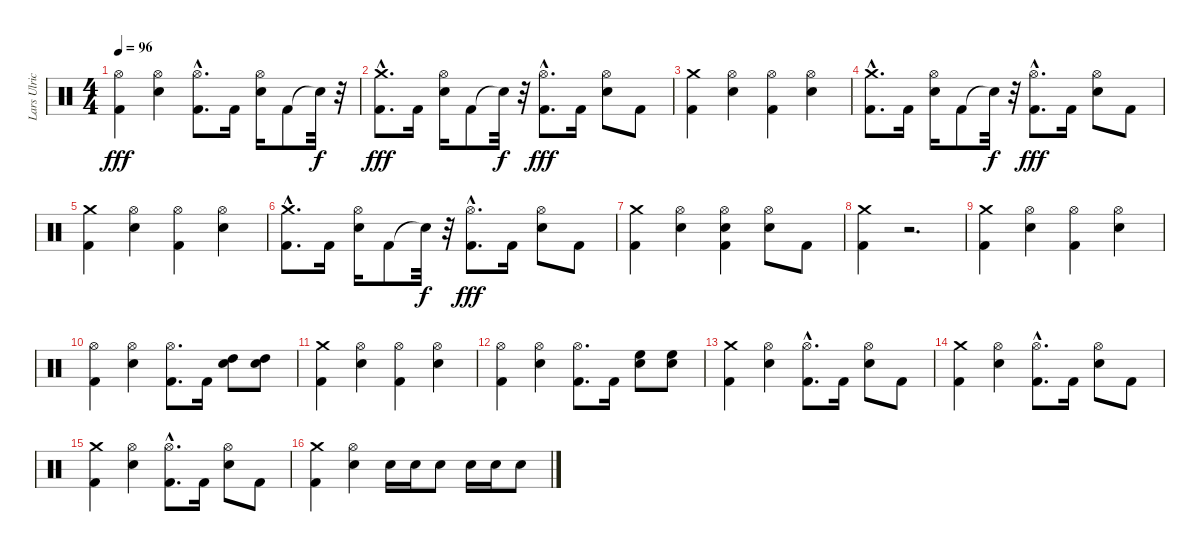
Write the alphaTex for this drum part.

\track ("Lars Ulrich" "Lars Ulric") {instrument percussion}
\staff {score}
\articulation defaults
\ts (4 4)
\tempo 96
\clef neutral
\ks c
("Hi-Hat (open)" "Kick (hit) 2").4{dy fff} ("Hi-Hat (open)" "Snare (hit) 2").4 ("Kick (hit) 2"{hac} "Hi-Hat (open)").8{d} "Kick (hit) 2".16 ("Hi-Hat (open)" "Snare (hit) 2").16 "Kick (hit) 2".8 "Snare (hit)"{t}.32{dy f} r.32 |
("Kick (hit) 2"{hac} "Crash medium (hit)").8{d dy fff} "Kick (hit) 2".16 ("Hi-Hat (open)" "Snare (hit) 2").16 "Kick (hit) 2".8 "Snare (hit)"{t}.32{dy f} r.32 ("Kick (hit) 2"{hac} "Hi-Hat (open)").8{d dy fff} "Kick (hit) 2".16 ("Snare (hit) 2" "Hi-Hat (open)").8 "Kick (hit) 2".8 |
("Kick (hit) 2" "Crash medium (hit)").4 ("Hi-Hat (open)" "Snare (hit) 2").4 ("Hi-Hat (open)" "Kick (hit) 2").4 ("Hi-Hat (open)" "Snare (hit) 2").4 |
("Kick (hit) 2"{hac} "Crash medium (hit)").8{d} "Kick (hit) 2".16 ("Hi-Hat (open)" "Snare (hit) 2").16 "Kick (hit) 2".8 "Snare (hit)"{t}.32{dy f} r.32 ("Kick (hit) 2"{hac} "Hi-Hat (open)").8{d dy fff} "Kick (hit) 2".16 ("Snare (hit) 2" "Hi-Hat (open)").8 "Kick (hit) 2".8 |
("Kick (hit) 2" "Crash medium (hit)").4 ("Hi-Hat (open)" "Snare (hit) 2").4 ("Hi-Hat (open)" "Kick (hit) 2").4 ("Hi-Hat (open)" "Snare (hit) 2").4 |
("Kick (hit) 2"{hac} "Crash medium (hit)").8{d} "Kick (hit) 2".16 ("Hi-Hat (open)" "Snare (hit) 2").16 "Kick (hit) 2".8 "Snare (hit)"{t}.32{dy f} r.32 ("Kick (hit) 2"{hac} "Hi-Hat (open)").8{d dy fff} "Kick (hit) 2".16 ("Snare (hit) 2" "Hi-Hat (open)").8 "Kick (hit) 2".8 |
("Kick (hit) 2" "Crash medium (hit)").4 ("Hi-Hat (open)" "Snare (hit) 2").4 ("Hi-Hat (open)" "Snare (hit) 2" "Kick (hit) 2").4 ("Hi-Hat (open)" "Snare (hit) 2").8 "Kick (hit) 2".8 |
("Kick (hit) 2" "Crash medium (hit)").4 r.2{d} |
("Kick (hit) 2" "Crash medium (hit)").4 ("Hi-Hat (open)" "Snare (hit) 2").4 ("Hi-Hat (open)" "Kick (hit) 2").4 ("Hi-Hat (open)" "Snare (hit) 2").4 |
("Hi-Hat (open)" "Kick (hit) 2").4 ("Hi-Hat (open)" "Snare (hit) 2").4 ("Hi-Hat (open)" "Kick (hit) 2").8{d} "Kick (hit) 2".16 ("Snare (hit) 2" "High Tom (hit)").8 ("Snare (hit) 2" "High Tom (hit)").8 |
("Kick (hit) 2" "Crash medium (hit)").4 ("Hi-Hat (open)" "Snare (hit) 2").4 ("Hi-Hat (open)" "Kick (hit) 2").4 ("Hi-Hat (open)" "Snare (hit) 2").4 |
("Hi-Hat (open)" "Kick (hit) 2").4 ("Hi-Hat (open)" "Snare (hit) 2").4 ("Hi-Hat (open)" "Kick (hit) 2").8{d} "Kick (hit) 2".16 ("High Floor Tom (hit)" "Snare (hit) 2").8 ("High Floor Tom (hit)" "Snare (hit) 2").8 |
("Kick (hit) 2" "Crash medium (hit)").4 ("Hi-Hat (open)" "Snare (hit) 2").4 ("Kick (hit) 2"{hac} "Hi-Hat (open)").8{d} "Kick (hit) 2".16 ("Snare (hit) 2" "Hi-Hat (open)").8 "Kick (hit) 2".8 |
("Kick (hit) 2" "Crash medium (hit)").4 ("Hi-Hat (open)" "Snare (hit) 2").4 ("Kick (hit) 2"{hac} "Hi-Hat (open)").8{d} "Kick (hit) 2".16 ("Snare (hit) 2" "Hi-Hat (open)").8 "Kick (hit) 2".8 |
("Kick (hit) 2" "Crash medium (hit)").4 ("Hi-Hat (open)" "Snare (hit) 2").4 ("Kick (hit) 2"{hac} "Hi-Hat (open)").8{d} "Kick (hit) 2".16 ("Snare (hit) 2" "Hi-Hat (open)").8 "Kick (hit) 2".8 |
("Kick (hit) 2" "Crash medium (hit)").4 ("Hi-Hat (open)" "Snare (hit) 2").4 "Snare (hit) 2".16 "Snare (hit) 2".16 "Snare (hit) 2".8 "Snare (hit) 2".16 "Snare (hit) 2".16 "Snare (hit) 2".8
